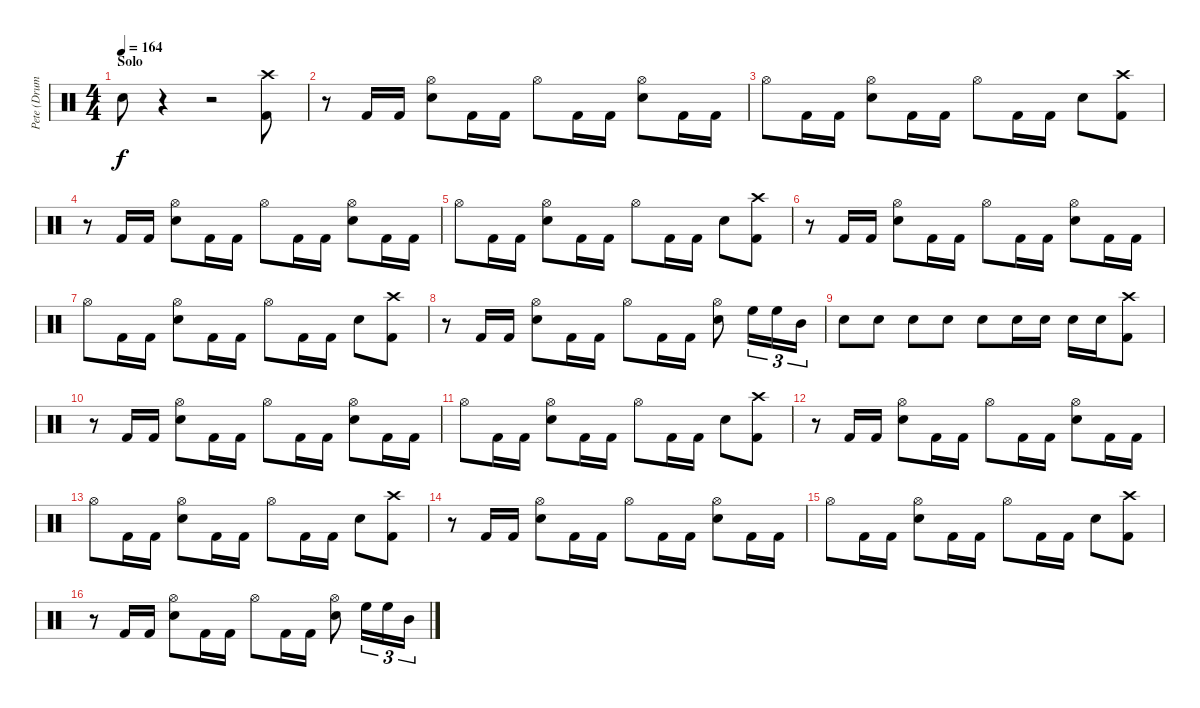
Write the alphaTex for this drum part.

\track ("Pete (Drums)" "Pete (Drum") {instrument percussion}
\staff {score}
\articulation defaults
\ts (4 4)
\section ("" "Solo")
\tempo 164
\clef neutral
\ks c "Snare (hit) 2".8{dy f}
r.4 r.2 ("Crash high (hit)" "Kick (hit) 2").8 |
r.8 "Kick (hit) 2".16 "Kick (hit) 2".16 ("Hi-Hat (open)" "Snare (hit) 2").8 "Kick (hit) 2".16 "Kick (hit) 2".16 "Hi-Hat (open)".8 "Kick (hit) 2".16 "Kick (hit) 2".16 ("Hi-Hat (open)" "Snare (hit) 2").8 "Kick (hit) 2".16 "Kick (hit) 2".16 |
"Hi-Hat (open)".8 "Kick (hit) 2".16 "Kick (hit) 2".16 ("Hi-Hat (open)" "Snare (hit) 2").8 "Kick (hit) 2".16 "Kick (hit) 2".16 "Hi-Hat (open)".8 "Kick (hit) 2".16 "Kick (hit) 2".16 "Snare (hit) 2".8 ("Crash high (hit)" "Kick (hit) 2").8 |
r.8 "Kick (hit) 2".16 "Kick (hit) 2".16 ("Hi-Hat (open)" "Snare (hit) 2").8 "Kick (hit) 2".16 "Kick (hit) 2".16 "Hi-Hat (open)".8 "Kick (hit) 2".16 "Kick (hit) 2".16 ("Hi-Hat (open)" "Snare (hit) 2").8 "Kick (hit) 2".16 "Kick (hit) 2".16 |
"Hi-Hat (open)".8 "Kick (hit) 2".16 "Kick (hit) 2".16 ("Hi-Hat (open)" "Snare (hit) 2").8 "Kick (hit) 2".16 "Kick (hit) 2".16 "Hi-Hat (open)".8 "Kick (hit) 2".16 "Kick (hit) 2".16 "Snare (hit) 2".8 ("Crash high (hit)" "Kick (hit) 2").8 |
r.8 "Kick (hit) 2".16 "Kick (hit) 2".16 ("Hi-Hat (open)" "Snare (hit) 2").8 "Kick (hit) 2".16 "Kick (hit) 2".16 "Hi-Hat (open)".8 "Kick (hit) 2".16 "Kick (hit) 2".16 ("Hi-Hat (open)" "Snare (hit) 2").8 "Kick (hit) 2".16 "Kick (hit) 2".16 |
"Hi-Hat (open)".8 "Kick (hit) 2".16 "Kick (hit) 2".16 ("Hi-Hat (open)" "Snare (hit) 2").8 "Kick (hit) 2".16 "Kick (hit) 2".16 "Hi-Hat (open)".8 "Kick (hit) 2".16 "Kick (hit) 2".16 "Snare (hit) 2".8 ("Crash high (hit)" "Kick (hit) 2").8 |
r.8 "Kick (hit) 2".16 "Kick (hit) 2".16 ("Hi-Hat (open)" "Snare (hit) 2").8 "Kick (hit) 2".16 "Kick (hit) 2".16 "Hi-Hat (open)".8 "Kick (hit) 2".16 "Kick (hit) 2".16 ("Hi-Hat (open)" "Snare (hit) 2").8 "High Floor Tom (hit)".16{tu (3 2)} "High Floor Tom (hit)".16{tu (3 2)} "Mid Tom (hit)".16{tu (3 2)} |
"Snare (hit) 2".8 "Snare (hit) 2".8 "Snare (hit) 2".8 "Snare (hit) 2".8 "Snare (hit) 2".8 "Snare (hit) 2".16 "Snare (hit) 2".16 "Snare (hit) 2".16 "Snare (hit) 2".16 ("Crash high (hit)" "Kick (hit) 2").8 |
r.8 "Kick (hit) 2".16 "Kick (hit) 2".16 ("Hi-Hat (open)" "Snare (hit) 2").8 "Kick (hit) 2".16 "Kick (hit) 2".16 "Hi-Hat (open)".8 "Kick (hit) 2".16 "Kick (hit) 2".16 ("Hi-Hat (open)" "Snare (hit) 2").8 "Kick (hit) 2".16 "Kick (hit) 2".16 |
"Hi-Hat (open)".8 "Kick (hit) 2".16 "Kick (hit) 2".16 ("Hi-Hat (open)" "Snare (hit) 2").8 "Kick (hit) 2".16 "Kick (hit) 2".16 "Hi-Hat (open)".8 "Kick (hit) 2".16 "Kick (hit) 2".16 "Snare (hit) 2".8 ("Crash high (hit)" "Kick (hit) 2").8 |
r.8 "Kick (hit) 2".16 "Kick (hit) 2".16 ("Hi-Hat (open)" "Snare (hit) 2").8 "Kick (hit) 2".16 "Kick (hit) 2".16 "Hi-Hat (open)".8 "Kick (hit) 2".16 "Kick (hit) 2".16 ("Hi-Hat (open)" "Snare (hit) 2").8 "Kick (hit) 2".16 "Kick (hit) 2".16 |
"Hi-Hat (open)".8 "Kick (hit) 2".16 "Kick (hit) 2".16 ("Hi-Hat (open)" "Snare (hit) 2").8 "Kick (hit) 2".16 "Kick (hit) 2".16 "Hi-Hat (open)".8 "Kick (hit) 2".16 "Kick (hit) 2".16 "Snare (hit) 2".8 ("Crash high (hit)" "Kick (hit) 2").8 |
r.8 "Kick (hit) 2".16 "Kick (hit) 2".16 ("Hi-Hat (open)" "Snare (hit) 2").8 "Kick (hit) 2".16 "Kick (hit) 2".16 "Hi-Hat (open)".8 "Kick (hit) 2".16 "Kick (hit) 2".16 ("Hi-Hat (open)" "Snare (hit) 2").8 "Kick (hit) 2".16 "Kick (hit) 2".16 |
"Hi-Hat (open)".8 "Kick (hit) 2".16 "Kick (hit) 2".16 ("Hi-Hat (open)" "Snare (hit) 2").8 "Kick (hit) 2".16 "Kick (hit) 2".16 "Hi-Hat (open)".8 "Kick (hit) 2".16 "Kick (hit) 2".16 "Snare (hit) 2".8 ("Crash high (hit)" "Kick (hit) 2").8 |
r.8 "Kick (hit) 2".16 "Kick (hit) 2".16 ("Hi-Hat (open)" "Snare (hit) 2").8 "Kick (hit) 2".16 "Kick (hit) 2".16 "Hi-Hat (open)".8 "Kick (hit) 2".16 "Kick (hit) 2".16 ("Hi-Hat (open)" "Snare (hit) 2").8 "High Floor Tom (hit)".16{tu (3 2)} "High Floor Tom (hit)".16{tu (3 2)} "Mid Tom (hit)".16{tu (3 2)}
